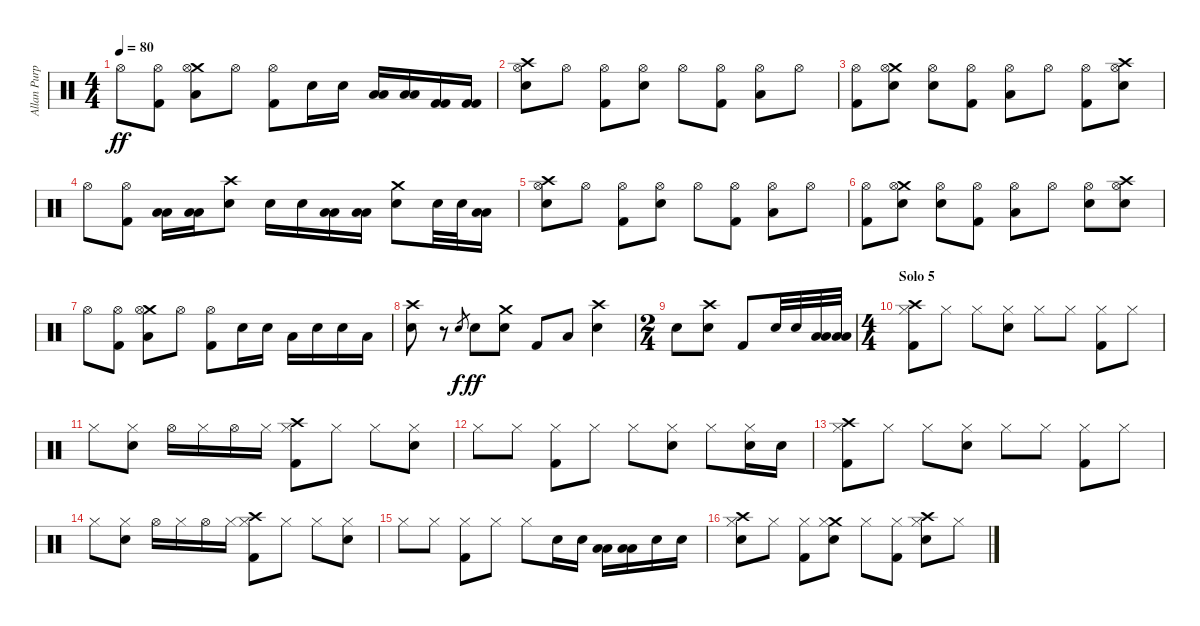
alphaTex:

\track ("Allan Purple" "Allan Purp") {instrument percussion}
\staff {score}
\articulation defaults
\ts (4 4)
\tempo 80
\clef neutral
\ks c "Hi-Hat (open)".8{dy ff}
("Hi-Hat (open)" "Kick (hit) 2").8 ("Crash medium (hit)" "Hi-Hat (open)" "Low Tom (hit)").8 "Hi-Hat (open)".8 ("Hi-Hat (open)" "Kick (hit) 2").8 "Electric Snare (hit)".16 "Electric Snare (hit)".16 ("Low Tom (hit)" "Low Tom (hit)").16 ("Low Tom (hit)" "Low Tom (hit)").16 ("Kick (hit) 2" "Kick (hit) 2").16 ("Kick (hit) 2" "Kick (hit) 2").16 |
("Crash high (hit)" "Hi-Hat (open)" "Snare (hit) 2").8 "Hi-Hat (open)".8 ("Hi-Hat (open)" "Kick (hit) 2").8 ("Hi-Hat (open)" "Snare (hit) 2").8 "Hi-Hat (open)".8 ("Hi-Hat (open)" "Kick (hit) 2").8 ("Hi-Hat (open)" "Low Tom (hit)").8 "Hi-Hat (open)".8 |
("Hi-Hat (open)" "Kick (hit) 2").8 ("Crash medium (hit)" "Hi-Hat (open)" "Snare (hit) 2").8 ("Hi-Hat (open)" "Electric Snare (hit)").8 ("Hi-Hat (open)" "Kick (hit) 2").8 ("Hi-Hat (open)" "Low Tom (hit)").8 "Hi-Hat (open)".8 ("Hi-Hat (open)" "Kick (hit) 2").8 ("Crash high (hit)" "Hi-Hat (open)" "Snare (hit) 2").8 |
"Hi-Hat (open)".8 ("Hi-Hat (open)" "Kick (hit) 2").8 ("Low Tom (hit)" "Low Tom (hit)").16 ("Low Tom (hit)" "Low Tom (hit)").16 ("Crash high (hit)" "Electric Snare (hit)").8 "Electric Snare (hit)".16 "Electric Snare (hit)".16 ("Low Tom (hit)" "Low Tom (hit)").16 ("Low Tom (hit)" "Low Tom (hit)").16 ("Crash medium (hit)" "Snare (hit) 2").8 "Electric Snare (hit)".32 "Electric Snare (hit)".32 ("Low Tom (hit)" "Low Tom (hit)").16 |
("Crash high (hit)" "Hi-Hat (open)" "Snare (hit) 2").8 "Hi-Hat (open)".8 ("Hi-Hat (open)" "Kick (hit) 2").8 ("Hi-Hat (open)" "Snare (hit) 2").8 "Hi-Hat (open)".8 ("Hi-Hat (open)" "Kick (hit) 2").8 ("Hi-Hat (open)" "Low Tom (hit)").8 "Hi-Hat (open)".8 |
("Hi-Hat (open)" "Kick (hit) 2").8 ("Crash medium (hit)" "Hi-Hat (open)" "Snare (hit) 2").8 ("Hi-Hat (open)" "Electric Snare (hit)").8 ("Hi-Hat (open)" "Kick (hit) 2").8 ("Hi-Hat (open)" "Low Tom (hit)").8 "Hi-Hat (open)".8 ("Hi-Hat (open)" "Snare (hit) 2").8 ("Crash high (hit)" "Hi-Hat (open)" "Snare (hit) 2").8 |
"Hi-Hat (open)".8 ("Hi-Hat (open)" "Kick (hit) 2").8 ("Crash medium (hit)" "Hi-Hat (open)" "Low Tom (hit)").8 "Hi-Hat (open)".8 ("Hi-Hat (open)" "Kick (hit) 2").8 "Electric Snare (hit)".16 "Electric Snare (hit)".16 "Low Tom (hit)".16 "Electric Snare (hit)".16 "Electric Snare (hit)".16 "Low Tom (hit)".16 |
("Crash high (hit)" "Snare (hit) 2").8 r.8 "Electric Snare (hit)".8{gr dy f} "Electric Snare (hit)".8{dy ff} ("Crash medium (hit)" "Electric Snare (hit)").8 "Kick (hit) 2".8 "Low Tom (hit)".8 ("Crash high (hit)" "Electric Snare (hit)").4 |
\ts (2 4)
"Snare (hit) 2".8 ("Crash high (hit)" "Electric Snare (hit)").8 "Kick (hit) 2".8 "Electric Snare (hit)".32 "Electric Snare (hit)".32 ("Low Tom (hit)" "Low Tom (hit)").32 ("Low Tom (hit)" "Low Tom (hit)").32 |
\ts (4 4)
\section ("" "Solo 5")
("Crash high (hit)" "Hi-Hat (closed)" "Kick (hit) 2").8 "Hi-Hat (closed)".8 "Hi-Hat (closed)".8 ("Hi-Hat (closed)" "Snare (hit) 2").8 "Hi-Hat (closed)".8 "Hi-Hat (closed)".8 ("Hi-Hat (closed)" "Kick (hit) 2").8 "Hi-Hat (closed)".8 |
"Hi-Hat (closed)".8 ("Hi-Hat (closed)" "Snare (hit) 2").8 "Hi-Hat (open)".16 "Hi-Hat (closed)".16 "Hi-Hat (open)".16 "Hi-Hat (closed)".16 ("Crash high (hit)" "Hi-Hat (closed)" "Kick (hit) 2").8 "Hi-Hat (closed)".8 "Hi-Hat (closed)".8 ("Hi-Hat (closed)" "Snare (hit) 2").8 |
"Hi-Hat (closed)".8 "Hi-Hat (closed)".8 ("Hi-Hat (closed)" "Kick (hit) 2").8 "Hi-Hat (closed)".8 "Hi-Hat (closed)".8 ("Hi-Hat (closed)" "Snare (hit) 2").8 "Hi-Hat (closed)".8 ("Hi-Hat (closed)" "Electric Snare (hit)").16 "Electric Snare (hit)".16 |
("Crash high (hit)" "Hi-Hat (closed)" "Kick (hit) 2").8 "Hi-Hat (closed)".8 "Hi-Hat (closed)".8 ("Hi-Hat (closed)" "Snare (hit) 2").8 "Hi-Hat (closed)".8 "Hi-Hat (closed)".8 ("Hi-Hat (closed)" "Kick (hit) 2").8 "Hi-Hat (closed)".8 |
"Hi-Hat (closed)".8 ("Hi-Hat (closed)" "Snare (hit) 2").8 "Hi-Hat (open)".16 "Hi-Hat (closed)".16 "Hi-Hat (open)".16 "Hi-Hat (closed)".16 ("Crash high (hit)" "Hi-Hat (closed)" "Kick (hit) 2").8 "Hi-Hat (closed)".8 "Hi-Hat (closed)".8 ("Hi-Hat (closed)" "Snare (hit) 2").8 |
"Hi-Hat (closed)".8 "Hi-Hat (closed)".8 ("Hi-Hat (closed)" "Kick (hit) 2").8 "Hi-Hat (closed)".8 "Hi-Hat (closed)".8 "Electric Snare (hit)".16 "Electric Snare (hit)".16 ("Low Tom (hit)" "Low Tom (hit)").16 ("Low Tom (hit)" "Low Tom (hit)").16 "Snare (hit) 2".16 "Snare (hit) 2".16 |
("Crash high (hit)" "Hi-Hat (closed)" "Electric Snare (hit)").8 "Hi-Hat (closed)".8 ("Hi-Hat (closed)" "Kick (hit) 2").8 ("Crash medium (hit)" "Hi-Hat (closed)" "Snare (hit) 2").8 "Hi-Hat (closed)".8 ("Hi-Hat (closed)" "Kick (hit) 2").8 ("Crash high (hit)" "Hi-Hat (closed)" "Electric Snare (hit)").8 "Hi-Hat (closed)".8
